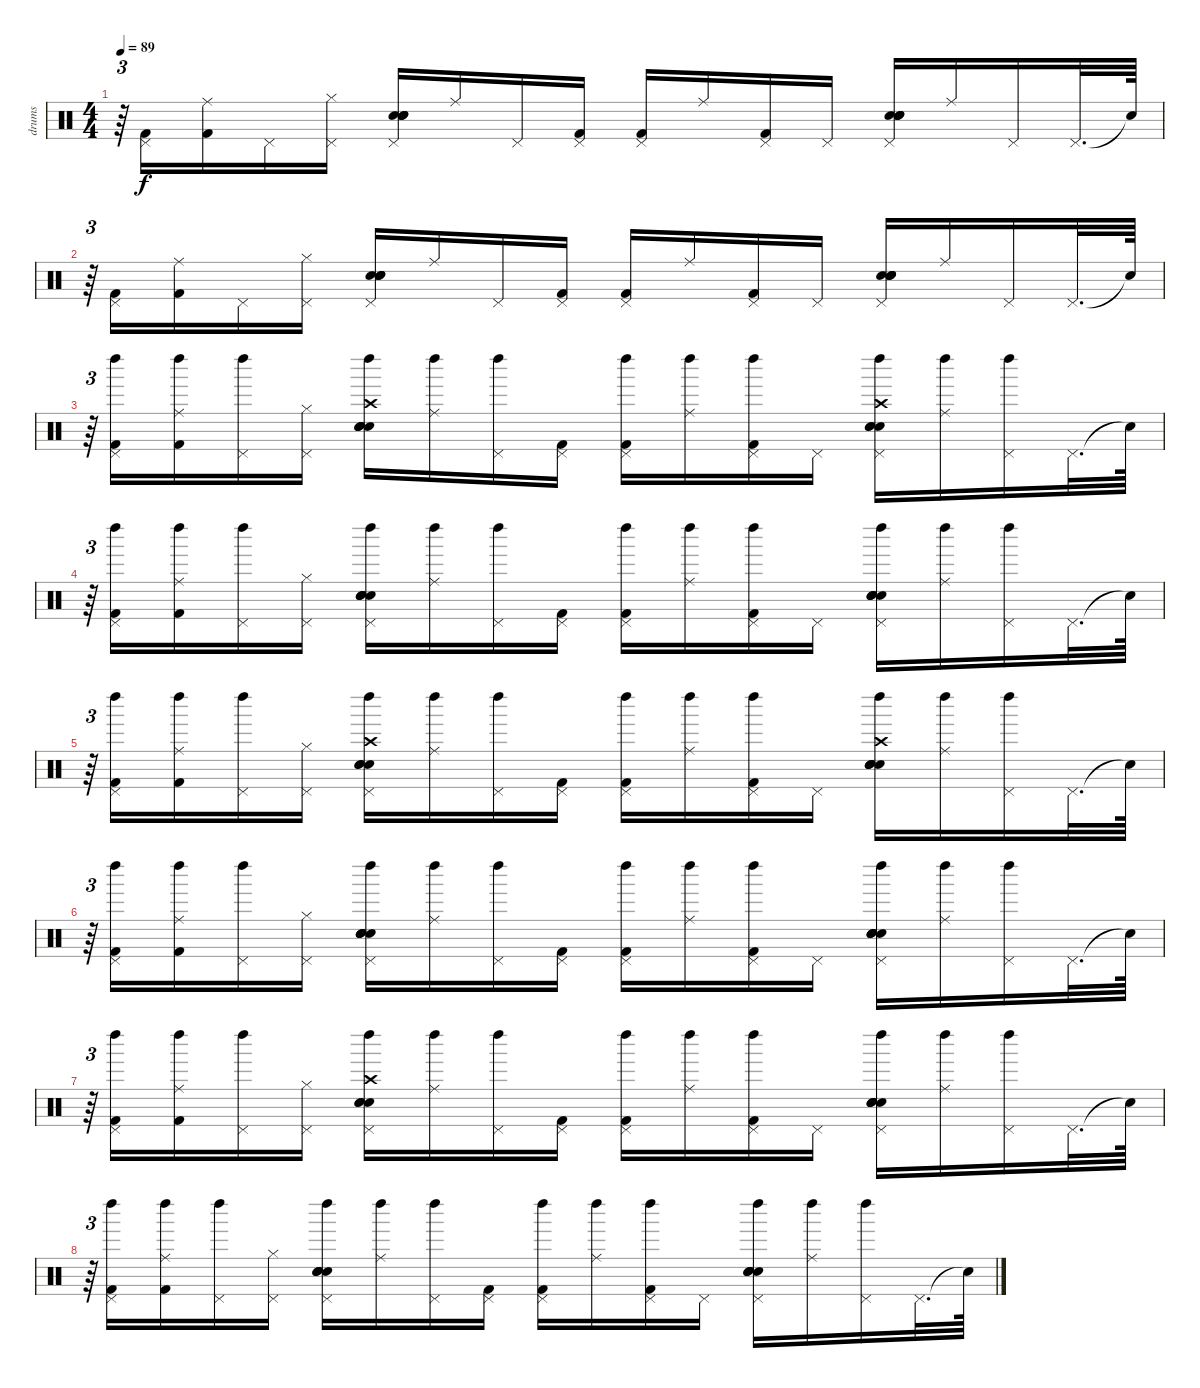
\track ("drums" "drums") {instrument percussion}
\staff {score}
\articulation defaults
\ts (4 4)
\tempo 89
\clef neutral
\ks c
r.64{tu (3 2) dy f} ("Pedal Hi-Hat (hit)" "Kick (hit) 2").16 ("Kick (hit) 2" "Ride (middle)").16 "Pedal Hi-Hat (hit)".16 ("Hi-Hat (closed)" "Pedal Hi-Hat (hit)").16 ("Electric Snare (hit)" "Electric Snare (hit)" "Hand Clap (hit)" "Pedal Hi-Hat (hit)" "Hand Clap (hit)").16 "Ride (middle)".16 "Pedal Hi-Hat (hit)".16 ("Kick (hit) 2" "Pedal Hi-Hat (hit)").16 ("Pedal Hi-Hat (hit)" "Kick (hit) 2").16 "Ride (middle)".16 ("Pedal Hi-Hat (hit)" "Kick (hit) 2").16 "Pedal Hi-Hat (hit)".16 ("Electric Snare (hit)" "Electric Snare (hit)" "Hand Clap (hit)" "Pedal Hi-Hat (hit)" "Hand Clap (hit)").16 "Ride (middle)".16 "Pedal Hi-Hat (hit)".16 "Pedal Hi-Hat (hit)".32{d} "Snare (hit)"{t}.64 |
r.64{tu (3 2)} ("Pedal Hi-Hat (hit)" "Kick (hit) 2").16 ("Ride (middle)" "Kick (hit) 2").16 "Pedal Hi-Hat (hit)".16 ("Pedal Hi-Hat (hit)" "Hi-Hat (closed)").16 ("Hand Clap (hit)" "Hand Clap (hit)" "Electric Snare (hit)" "Electric Snare (hit)" "Pedal Hi-Hat (hit)").16 "Ride (middle)".16 "Pedal Hi-Hat (hit)".16 ("Kick (hit) 2" "Pedal Hi-Hat (hit)").16 ("Kick (hit) 2" "Pedal Hi-Hat (hit)").16 "Ride (middle)".16 ("Kick (hit) 2" "Pedal Hi-Hat (hit)").16 "Pedal Hi-Hat (hit)".16 ("Hand Clap (hit)" "Electric Snare (hit)" "Hand Clap (hit)" "Pedal Hi-Hat (hit)" "Electric Snare (hit)").16 "Ride (middle)".16 "Pedal Hi-Hat (hit)".16 "Pedal Hi-Hat (hit)".32{d} "Snare (hit)"{t}.64 |
r.64{tu (3 2)} ("Left Maraca (hit)" "Pedal Hi-Hat (hit)" "Kick (hit) 2").16 ("Ride (middle)" "Left Maraca (hit)" "Kick (hit) 2").16 ("Pedal Hi-Hat (hit)" "Left Maraca (hit)").16 ("Hi-Hat (closed)" "Pedal Hi-Hat (hit)").16 ("Hand Clap (hit)" "Left Maraca (hit)" "Hand Clap (hit)" "Electric Snare (hit)" "Electric Snare (hit)" "Crash high (hit)").16 ("Ride (middle)" "Left Maraca (hit)").16 ("Pedal Hi-Hat (hit)" "Left Maraca (hit)").16 ("Kick (hit) 2" "Pedal Hi-Hat (hit)").16 ("Kick (hit) 2" "Pedal Hi-Hat (hit)" "Left Maraca (hit)").16 ("Ride (middle)" "Left Maraca (hit)").16 ("Left Maraca (hit)" "Kick (hit) 2" "Pedal Hi-Hat (hit)").16 "Pedal Hi-Hat (hit)".16 ("Pedal Hi-Hat (hit)" "Hand Clap (hit)" "Crash high (hit)" "Hand Clap (hit)" "Left Maraca (hit)" "Electric Snare (hit)").16 ("Ride (middle)" "Left Maraca (hit)").16 ("Pedal Hi-Hat (hit)" "Left Maraca (hit)").16 "Pedal Hi-Hat (hit)".32{d} "Snare (hit)"{t}.64 |
r.64{tu (3 2)} ("Pedal Hi-Hat (hit)" "Left Maraca (hit)" "Kick (hit) 2").16 ("Kick (hit) 2" "Ride (middle)" "Left Maraca (hit)").16 ("Pedal Hi-Hat (hit)" "Left Maraca (hit)").16 ("Hi-Hat (closed)" "Pedal Hi-Hat (hit)").16 ("Hand Clap (hit)" "Pedal Hi-Hat (hit)" "Left Maraca (hit)" "Hand Clap (hit)" "Electric Snare (hit)" "Electric Snare (hit)").16 ("Ride (middle)" "Left Maraca (hit)").16 ("Left Maraca (hit)" "Pedal Hi-Hat (hit)").16 ("Kick (hit) 2" "Pedal Hi-Hat (hit)").16 ("Pedal Hi-Hat (hit)" "Kick (hit) 2" "Left Maraca (hit)").16 ("Ride (middle)" "Left Maraca (hit)").16 ("Left Maraca (hit)" "Kick (hit) 2" "Pedal Hi-Hat (hit)").16 "Pedal Hi-Hat (hit)".16 ("Electric Snare (hit)" "Electric Snare (hit)" "Pedal Hi-Hat (hit)" "Hand Clap (hit)" "Hand Clap (hit)" "Left Maraca (hit)").16 ("Left Maraca (hit)" "Ride (middle)").16 ("Left Maraca (hit)" "Pedal Hi-Hat (hit)").16 "Pedal Hi-Hat (hit)".32{d} "Snare (hit)"{t}.64 |
r.64{tu (3 2)} ("Pedal Hi-Hat (hit)" "Left Maraca (hit)" "Kick (hit) 2").16 ("Ride (middle)" "Left Maraca (hit)" "Kick (hit) 2").16 ("Left Maraca (hit)" "Pedal Hi-Hat (hit)").16 ("Hi-Hat (closed)" "Pedal Hi-Hat (hit)").16 ("Left Maraca (hit)" "Pedal Hi-Hat (hit)" "Crash high (hit)" "Hand Clap (hit)" "Hand Clap (hit)" "Electric Snare (hit)").16 ("Left Maraca (hit)" "Ride (middle)").16 ("Left Maraca (hit)" "Pedal Hi-Hat (hit)").16 ("Kick (hit) 2" "Pedal Hi-Hat (hit)").16 ("Kick (hit) 2" "Left Maraca (hit)" "Pedal Hi-Hat (hit)").16 ("Ride (middle)" "Left Maraca (hit)").16 ("Kick (hit) 2" "Pedal Hi-Hat (hit)" "Left Maraca (hit)").16 "Pedal Hi-Hat (hit)".16 ("Hand Clap (hit)" "Crash high (hit)" "Left Maraca (hit)" "Hand Clap (hit)" "Electric Snare (hit)" "Electric Snare (hit)").16 ("Ride (middle)" "Left Maraca (hit)").16 ("Pedal Hi-Hat (hit)" "Left Maraca (hit)").16 "Pedal Hi-Hat (hit)".32{d} "Snare (hit)"{t}.64 |
r.64{tu (3 2)} ("Left Maraca (hit)" "Pedal Hi-Hat (hit)" "Kick (hit) 2").16 ("Left Maraca (hit)" "Kick (hit) 2" "Ride (middle)").16 ("Pedal Hi-Hat (hit)" "Left Maraca (hit)").16 ("Hi-Hat (closed)" "Pedal Hi-Hat (hit)").16 ("Hand Clap (hit)" "Hand Clap (hit)" "Electric Snare (hit)" "Electric Snare (hit)" "Left Maraca (hit)" "Pedal Hi-Hat (hit)").16 ("Left Maraca (hit)" "Ride (middle)").16 ("Pedal Hi-Hat (hit)" "Left Maraca (hit)").16 ("Kick (hit) 2" "Pedal Hi-Hat (hit)").16 ("Left Maraca (hit)" "Pedal Hi-Hat (hit)" "Kick (hit) 2").16 ("Left Maraca (hit)" "Ride (middle)").16 ("Pedal Hi-Hat (hit)" "Left Maraca (hit)" "Kick (hit) 2").16 "Pedal Hi-Hat (hit)".16 ("Electric Snare (hit)" "Hand Clap (hit)" "Electric Snare (hit)" "Hand Clap (hit)" "Pedal Hi-Hat (hit)" "Left Maraca (hit)").16 ("Ride (middle)" "Left Maraca (hit)").16 ("Pedal Hi-Hat (hit)" "Left Maraca (hit)").16 "Pedal Hi-Hat (hit)".32{d} "Snare (hit)"{t}.64 |
r.64{tu (3 2)} ("Pedal Hi-Hat (hit)" "Left Maraca (hit)" "Kick (hit) 2").16 ("Kick (hit) 2" "Ride (middle)" "Left Maraca (hit)").16 ("Pedal Hi-Hat (hit)" "Left Maraca (hit)").16 ("Pedal Hi-Hat (hit)" "Hi-Hat (closed)").16 ("Crash high (hit)" "Hand Clap (hit)" "Left Maraca (hit)" "Hand Clap (hit)" "Pedal Hi-Hat (hit)" "Electric Snare (hit)").16 ("Left Maraca (hit)" "Ride (middle)").16 ("Left Maraca (hit)" "Pedal Hi-Hat (hit)").16 ("Pedal Hi-Hat (hit)" "Kick (hit) 2").16 ("Pedal Hi-Hat (hit)" "Left Maraca (hit)" "Kick (hit) 2").16 ("Left Maraca (hit)" "Ride (middle)").16 ("Kick (hit) 2" "Left Maraca (hit)" "Pedal Hi-Hat (hit)").16 "Pedal Hi-Hat (hit)".16 ("Pedal Hi-Hat (hit)" "Hand Clap (hit)" "Hand Clap (hit)" "Electric Snare (hit)" "Electric Snare (hit)" "Left Maraca (hit)").16 ("Ride (middle)" "Left Maraca (hit)").16 ("Left Maraca (hit)" "Pedal Hi-Hat (hit)").16 "Pedal Hi-Hat (hit)".32{d} "Snare (hit)"{t}.64 |
r.64{tu (3 2)} ("Left Maraca (hit)" "Pedal Hi-Hat (hit)" "Kick (hit) 2").16 ("Kick (hit) 2" "Left Maraca (hit)" "Ride (middle)").16 ("Pedal Hi-Hat (hit)" "Left Maraca (hit)").16 ("Pedal Hi-Hat (hit)" "Hi-Hat (closed)").16 ("Hand Clap (hit)" "Left Maraca (hit)" "Pedal Hi-Hat (hit)" "Electric Snare (hit)" "Electric Snare (hit)" "Hand Clap (hit)").16 ("Left Maraca (hit)" "Ride (middle)").16 ("Left Maraca (hit)" "Pedal Hi-Hat (hit)").16 ("Kick (hit) 2" "Pedal Hi-Hat (hit)").16 ("Left Maraca (hit)" "Pedal Hi-Hat (hit)" "Kick (hit) 2").16 ("Ride (middle)" "Left Maraca (hit)").16 ("Kick (hit) 2" "Left Maraca (hit)" "Pedal Hi-Hat (hit)").16 "Pedal Hi-Hat (hit)".16 ("Left Maraca (hit)" "Hand Clap (hit)" "Pedal Hi-Hat (hit)" "Electric Snare (hit)" "Hand Clap (hit)" "Electric Snare (hit)").16 ("Ride (middle)" "Left Maraca (hit)").16 ("Pedal Hi-Hat (hit)" "Left Maraca (hit)").16 "Pedal Hi-Hat (hit)".32{d} "Snare (hit)"{t}.64
